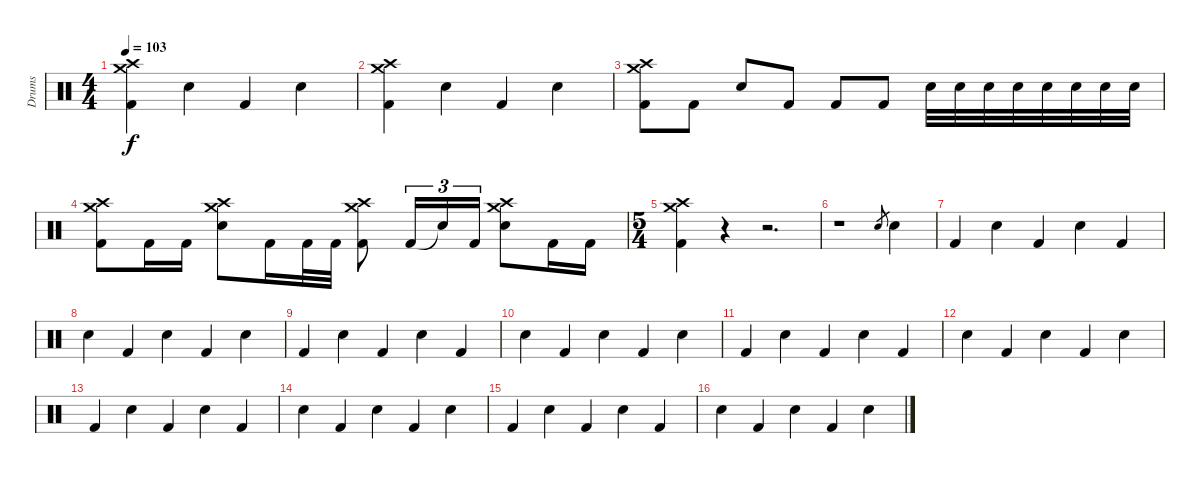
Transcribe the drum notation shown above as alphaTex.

\track ("Drums" "Drums") {instrument percussion}
\staff {score}
\articulation defaults
\ts (4 4)
\tempo 103
\clef neutral
\ks c
("Crash high (hit)" "Crash medium (hit)" "Kick (hit) 2").4{dy f} "Snare (hit) 2".4 "Kick (hit) 2".4 "Snare (hit) 2".4 |
("Crash high (hit)" "Crash medium (hit)" "Kick (hit) 2").4 "Snare (hit) 2".4 "Kick (hit) 2".4 "Snare (hit) 2".4 |
("Crash high (hit)" "Crash medium (hit)" "Kick (hit) 2").8 "Kick (hit) 2".8 "Snare (hit) 2".8 "Kick (hit) 2".8 "Kick (hit) 2".8 "Kick (hit) 2".8 "Snare (hit) 2".32 "Snare (hit) 2".32 "Snare (hit) 2".32 "Snare (hit) 2".32 "Snare (hit) 2".32 "Snare (hit) 2".32 "Snare (hit) 2".32 "Snare (hit) 2".32 |
("Crash high (hit)" "Crash medium (hit)" "Kick (hit) 2").8 "Kick (hit) 2".16 "Kick (hit) 2".16 ("Crash high (hit)" "Crash medium (hit)" "Snare (hit) 2").8 "Kick (hit) 2".16 "Kick (hit) 2".32 "Kick (hit) 2".32 ("Crash high (hit)" "Crash medium (hit)" "Kick (hit) 2").8 "Kick (hit) 2".16{tu (3 2)} "Snare (hit)"{t}.16{tu (3 2)} "Kick (hit) 2".16{tu (3 2)} ("Crash high (hit)" "Crash medium (hit)" "Snare (hit) 2").8 "Kick (hit) 2".16 "Kick (hit) 2".16 |
\ts (5 4)
("Crash high (hit)" "Crash medium (hit)" "Kick (hit) 2").4 r.4 r.2{d} |
r.1 "Snare (hit) 2".8{gr} "Snare (hit) 2".4 |
"Kick (hit) 2".4 "Snare (hit) 2".4 "Kick (hit) 2".4 "Snare (hit) 2".4 "Kick (hit) 2".4 |
"Snare (hit) 2".4 "Kick (hit) 2".4 "Snare (hit) 2".4 "Kick (hit) 2".4 "Snare (hit) 2".4 |
"Kick (hit) 2".4 "Snare (hit) 2".4 "Kick (hit) 2".4 "Snare (hit) 2".4 "Kick (hit) 2".4 |
"Snare (hit) 2".4 "Kick (hit) 2".4 "Snare (hit) 2".4 "Kick (hit) 2".4 "Snare (hit) 2".4 |
"Kick (hit) 2".4 "Snare (hit) 2".4 "Kick (hit) 2".4 "Snare (hit) 2".4 "Kick (hit) 2".4 |
"Snare (hit) 2".4 "Kick (hit) 2".4 "Snare (hit) 2".4 "Kick (hit) 2".4 "Snare (hit) 2".4 |
"Kick (hit) 2".4 "Snare (hit) 2".4 "Kick (hit) 2".4 "Snare (hit) 2".4 "Kick (hit) 2".4 |
"Snare (hit) 2".4 "Kick (hit) 2".4 "Snare (hit) 2".4 "Kick (hit) 2".4 "Snare (hit) 2".4 |
"Kick (hit) 2".4 "Snare (hit) 2".4 "Kick (hit) 2".4 "Snare (hit) 2".4 "Kick (hit) 2".4 |
"Snare (hit) 2".4 "Kick (hit) 2".4 "Snare (hit) 2".4 "Kick (hit) 2".4 "Snare (hit) 2".4
